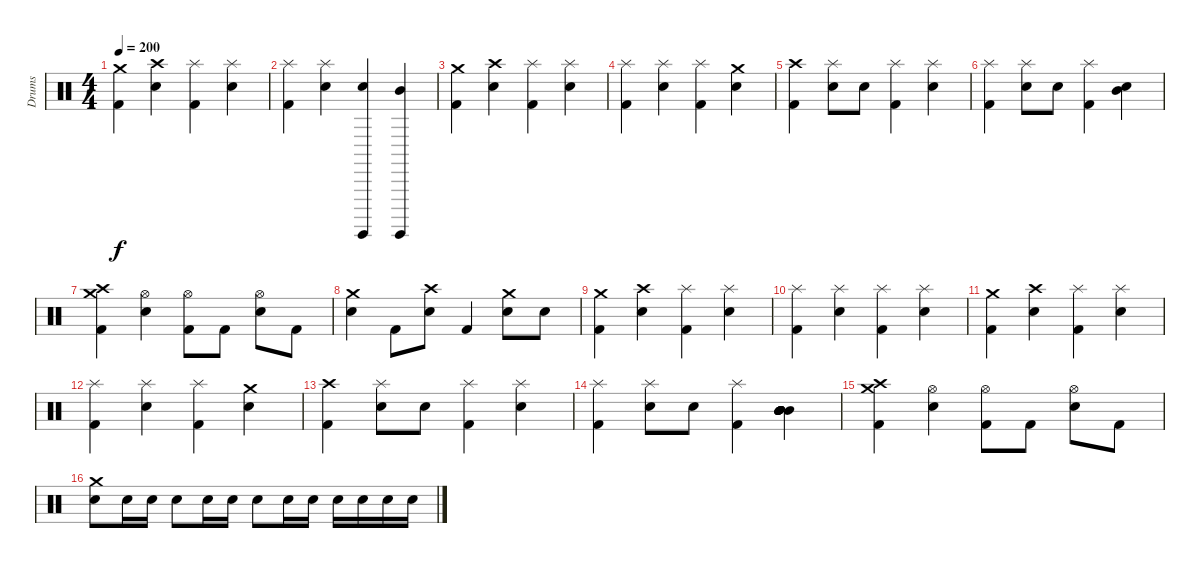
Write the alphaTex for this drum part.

\track ("Drums" "Drums") {instrument percussion}
\staff {score}
\articulation defaults
\ts (4 4)
\tempo 200
\clef neutral
\ks c
("Kick (hit) 2" "Crash medium (hit)").4{dy f} ("Electric Snare (hit)" "Crash high (hit)").4 ("Kick (hit) 2" "Splash (hit)").4 ("Electric Snare (hit)" "Splash (hit)").4 |
("Kick (hit) 2" "Splash (hit)").4 ("Electric Snare (hit)" "Splash (hit)").4 ("Electric Snare (hit)" "Surdo (hit)").4 ("Mid Tom (hit)" "Surdo (hit)").4 |
("Kick (hit) 2" "Crash medium (hit)").4 ("Electric Snare (hit)" "Crash high (hit)").4 ("Kick (hit) 2" "Splash (hit)").4 ("Electric Snare (hit)" "Splash (hit)").4 |
("Kick (hit) 2" "Splash (hit)").4 ("Electric Snare (hit)" "Splash (hit)").4 ("Kick (hit) 2" "Splash (hit)").4 ("Electric Snare (hit)" "Crash medium (hit)").4 |
("Kick (hit) 2" "Crash high (hit)").4 ("Electric Snare (hit)" "Splash (hit)").8 "Electric Snare (hit)".8 ("Kick (hit) 2" "Splash (hit)").4 ("Electric Snare (hit)" "Splash (hit)").4 |
("Kick (hit) 2" "Splash (hit)").4 ("Electric Snare (hit)" "Splash (hit)").8 "Electric Snare (hit)".8 ("Kick (hit) 2" "Splash (hit)").4 ("Electric Snare (hit)" "Mid Tom (hit)").4 |
("Crash medium (hit)" "Kick (hit) 2" "Crash high (hit)").4 ("Electric Snare (hit)" "Hi-Hat (open)").4 ("Kick (hit) 2" "Hi-Hat (open)").8 "Kick (hit) 2".8 ("Electric Snare (hit)" "Hi-Hat (open)").8 "Kick (hit) 2".8 |
("Electric Snare (hit)" "Crash medium (hit)").4 "Kick (hit) 2".8 ("Electric Snare (hit)" "Crash high (hit)").8 "Kick (hit) 2".4 ("Electric Snare (hit)" "Crash medium (hit)").8 "Electric Snare (hit)".8 |
("Kick (hit) 2" "Crash medium (hit)").4 ("Electric Snare (hit)" "Crash high (hit)").4 ("Kick (hit) 2" "Splash (hit)").4 ("Electric Snare (hit)" "Splash (hit)").4 |
("Kick (hit) 2" "Splash (hit)").4 ("Electric Snare (hit)" "Splash (hit)").4 ("Kick (hit) 2" "Splash (hit)").4 ("Electric Snare (hit)" "Splash (hit)").4 |
("Kick (hit) 2" "Crash medium (hit)").4 ("Electric Snare (hit)" "Crash high (hit)").4 ("Kick (hit) 2" "Splash (hit)").4 ("Electric Snare (hit)" "Splash (hit)").4 |
("Kick (hit) 2" "Splash (hit)").4 ("Electric Snare (hit)" "Splash (hit)").4 ("Kick (hit) 2" "Splash (hit)").4 ("Electric Snare (hit)" "Crash medium (hit)").4 |
("Kick (hit) 2" "Crash high (hit)").4 ("Electric Snare (hit)" "Splash (hit)").8 "Electric Snare (hit)".8 ("Kick (hit) 2" "Splash (hit)").4 ("Electric Snare (hit)" "Splash (hit)").4 |
("Kick (hit) 2" "Splash (hit)").4 ("Electric Snare (hit)" "Splash (hit)").8 "Electric Snare (hit)".8 ("Kick (hit) 2" "Splash (hit)").4 ("Mid Tom (hit)" "Mid Tom (hit)" "Mid Tom (hit)" "Mid Tom (hit)" "Mid Tom (hit)" "Mid Tom (hit)").4 |
("Crash medium (hit)" "Kick (hit) 2" "Crash high (hit)").4 ("Electric Snare (hit)" "Hi-Hat (open)").4 ("Kick (hit) 2" "Hi-Hat (open)").8 "Kick (hit) 2".8 ("Electric Snare (hit)" "Hi-Hat (open)").8 "Kick (hit) 2".8 |
("Electric Snare (hit)" "Crash medium (hit)").8 "Electric Snare (hit)".16 "Electric Snare (hit)".16 "Electric Snare (hit)".8 "Electric Snare (hit)".16 "Electric Snare (hit)".16 "Electric Snare (hit)".8 "Electric Snare (hit)".16 "Electric Snare (hit)".16 "Electric Snare (hit)".16 "Electric Snare (hit)".16 "Electric Snare (hit)".16 "Electric Snare (hit)".16
